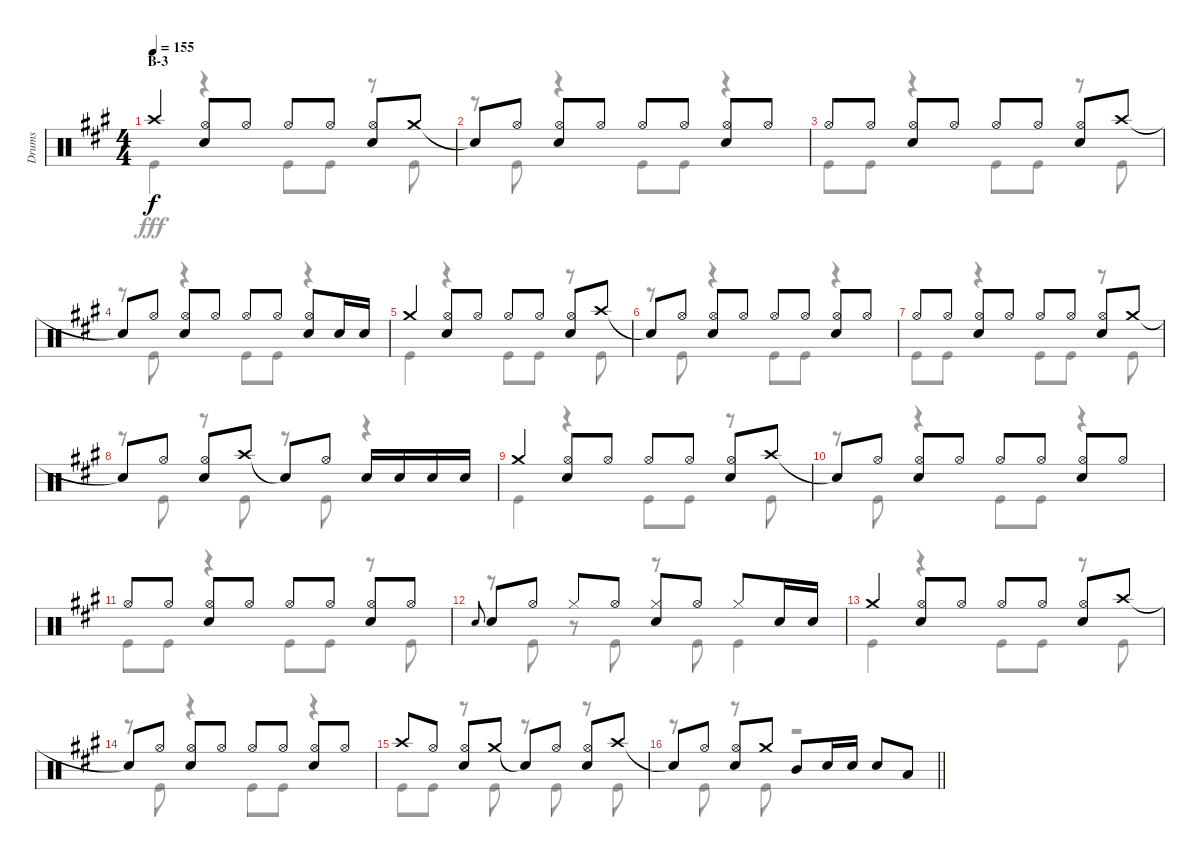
\track ("Drums" "Drums") {instrument percussion}
\staff {score}
\articulation defaults
\voice
\ts (4 4)
\section ("" "B-3")
\tempo 155
\clef neutral
\ks a "Crash high (hit)".4{dy f}
("Hi-Hat (open)" "Snare (hit) 2").8 "Hi-Hat (open)".8 "Hi-Hat (open)".8 "Hi-Hat (open)".8 ("Hi-Hat (open)" "Snare (hit) 2").8 "Crash medium (hit)".8 |
"Snare (hit)"{t}.8 "Hi-Hat (open)".8 ("Hi-Hat (open)" "Snare (hit) 2").8 "Hi-Hat (open)".8 "Hi-Hat (open)".8 "Hi-Hat (open)".8 ("Hi-Hat (open)" "Snare (hit) 2").8 "Hi-Hat (open)".8 |
"Hi-Hat (open)".8 "Hi-Hat (open)".8 ("Hi-Hat (open)" "Snare (hit) 2").8 "Hi-Hat (open)".8 "Hi-Hat (open)".8 "Hi-Hat (open)".8 ("Hi-Hat (open)" "Snare (hit) 2").8 "Crash high (hit)".8 |
"Snare (hit)"{t}.8 "Hi-Hat (open)".8 ("Hi-Hat (open)" "Snare (hit) 2").8 "Hi-Hat (open)".8 "Hi-Hat (open)".8 "Hi-Hat (open)".8 ("Hi-Hat (open)" "Snare (hit) 2").8 "Snare (hit) 2".16 "Snare (hit) 2".16 |
"Crash medium (hit)".4 ("Hi-Hat (open)" "Snare (hit) 2").8 "Hi-Hat (open)".8 "Hi-Hat (open)".8 "Hi-Hat (open)".8 ("Hi-Hat (open)" "Snare (hit) 2").8 "Crash high (hit)".8 |
"Snare (hit)"{t}.8 "Hi-Hat (open)".8 ("Hi-Hat (open)" "Snare (hit) 2").8 "Hi-Hat (open)".8 "Hi-Hat (open)".8 "Hi-Hat (open)".8 ("Hi-Hat (open)" "Snare (hit) 2").8 "Hi-Hat (open)".8 |
"Hi-Hat (open)".8 "Hi-Hat (open)".8 ("Hi-Hat (open)" "Snare (hit) 2").8 "Hi-Hat (open)".8 "Hi-Hat (open)".8 "Hi-Hat (open)".8 ("Hi-Hat (open)" "Snare (hit) 2").8 "Crash medium (hit)".8 |
"Snare (hit)"{t}.8 "Hi-Hat (open)".8 ("Hi-Hat (open)" "Snare (hit) 2").8 "Crash high (hit)".8 "Snare (hit)"{t}.8 "Hi-Hat (open)".8 "Snare (hit) 2".16 "Snare (hit) 2".16 "Snare (hit) 2".16 "Snare (hit) 2".16 |
"Crash medium (hit)".4 ("Hi-Hat (open)" "Snare (hit) 2").8 "Hi-Hat (open)".8 "Hi-Hat (open)".8 "Hi-Hat (open)".8 ("Hi-Hat (open)" "Snare (hit) 2").8 "Crash high (hit)".8 |
"Snare (hit)"{t}.8 "Hi-Hat (open)".8 ("Hi-Hat (open)" "Snare (hit) 2").8 "Hi-Hat (open)".8 "Hi-Hat (open)".8 "Hi-Hat (open)".8 ("Hi-Hat (open)" "Snare (hit) 2").8 "Hi-Hat (open)".8 |
"Hi-Hat (open)".8 "Hi-Hat (open)".8 ("Hi-Hat (open)" "Snare (hit) 2").8 "Hi-Hat (open)".8 "Hi-Hat (open)".8 "Hi-Hat (open)".8 ("Hi-Hat (open)" "Snare (hit) 2").8 "Hi-Hat (open)".8 |
"Snare (hit) 2".8{gr onbeat} "Snare (hit) 2".8 "Hi-Hat (open)".8 "Hi-Hat (closed)".8 "Hi-Hat (open)".8 ("Hi-Hat (closed)" "Snare (hit) 2").8 "Hi-Hat (open)".8 "Hi-Hat (closed)".8 "Snare (hit) 2".16 "Snare (hit) 2".16 |
"Crash medium (hit)".4 ("Hi-Hat (open)" "Snare (hit) 2").8 "Hi-Hat (open)".8 "Hi-Hat (open)".8 "Hi-Hat (open)".8 ("Hi-Hat (open)" "Snare (hit) 2").8 "Crash high (hit)".8 |
"Snare (hit)"{t}.8 "Hi-Hat (open)".8 ("Hi-Hat (open)" "Snare (hit) 2").8 "Hi-Hat (open)".8 "Hi-Hat (open)".8 "Hi-Hat (open)".8 ("Hi-Hat (open)" "Snare (hit) 2").8 "Hi-Hat (open)".8 |
"Crash high (hit)".8 "Hi-Hat (open)".8 ("Hi-Hat (open)" "Snare (hit) 2").8 "Crash medium (hit)".8 "Snare (hit)"{t}.8 "Hi-Hat (open)".8 ("Hi-Hat (open)" "Snare (hit) 2").8 "Crash high (hit)".8 |
\barLineRight lightlight "Snare (hit)"{t}.8 "Hi-Hat (open)".8
("Hi-Hat (open)" "Snare (hit) 2").8 "Crash medium (hit)".8 "Mid Tom (hit)".8 "Snare (hit) 2".16 "Snare (hit) 2".16 "Snare (hit) 2".8 "Low Tom (hit)".8
\voice
\clef neutral
\ottava regular
\simile none
\ks a "Kick (hit)".4{dy fff}
r.4 "Kick (hit)".8 "Kick (hit)".8 r.8 "Kick (hit)".8 |
r.8 "Kick (hit)".8 r.4 "Kick (hit)".8 "Kick (hit)".8 r.4 |
"Kick (hit)".8 "Kick (hit)".8 r.4 "Kick (hit)".8 "Kick (hit)".8 r.8 "Kick (hit)".8 |
r.8 "Kick (hit)".8 r.4 "Kick (hit)".8 "Kick (hit)".8 r.4 |
"Kick (hit)".4 r.4 "Kick (hit)".8 "Kick (hit)".8 r.8 "Kick (hit)".8 |
r.8 "Kick (hit)".8 r.4 "Kick (hit)".8 "Kick (hit)".8 r.4 |
"Kick (hit)".8 "Kick (hit)".8 r.4 "Kick (hit)".8 "Kick (hit)".8 r.8 "Kick (hit)".8 |
r.8 "Kick (hit)".8 r.8 "Kick (hit)".8 r.8 "Kick (hit)".8 r.4 |
"Kick (hit)".4 r.4 "Kick (hit)".8 "Kick (hit)".8 r.8 "Kick (hit)".8 |
r.8 "Kick (hit)".8 r.4 "Kick (hit)".8 "Kick (hit)".8 r.4 |
"Kick (hit)".8 "Kick (hit)".8 r.4 "Kick (hit)".8 "Kick (hit)".8 r.8 "Kick (hit)".8 |
r.8 "Kick (hit)".8 r.8 "Kick (hit)".8 r.8 "Kick (hit)".8 "Kick (hit)".4 |
"Kick (hit)".4 r.4 "Kick (hit)".8 "Kick (hit)".8 r.8 "Kick (hit)".8 |
r.8 "Kick (hit)".8 r.4 "Kick (hit)".8 "Kick (hit)".8 r.4 |
"Kick (hit)".8 "Kick (hit)".8 r.8 "Kick (hit)".8 r.8 "Kick (hit)".8 r.8 "Kick (hit)".8 |
\barLineRight lightlight
r.8 "Kick (hit)".8 r.8 "Kick (hit)".8 r.2
